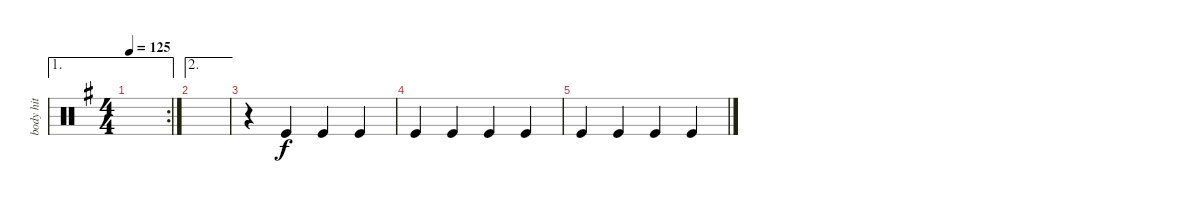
\track ("body hit" "body hit") {instrument percussion}
\staff {score}
\articulation defaults
\ae 1
\rc 2
\ts (4 4)
\tempo 125
\clef neutral
\ks g
|
\ae 2
|
r.4 "Kick (hit)".4 "Kick (hit)".4 "Kick (hit)".4 |
"Kick (hit)".4 "Kick (hit)".4 "Kick (hit)".4 "Kick (hit)".4 |
"Kick (hit)".4 "Kick (hit)".4 "Kick (hit)".4 "Kick (hit)".4
